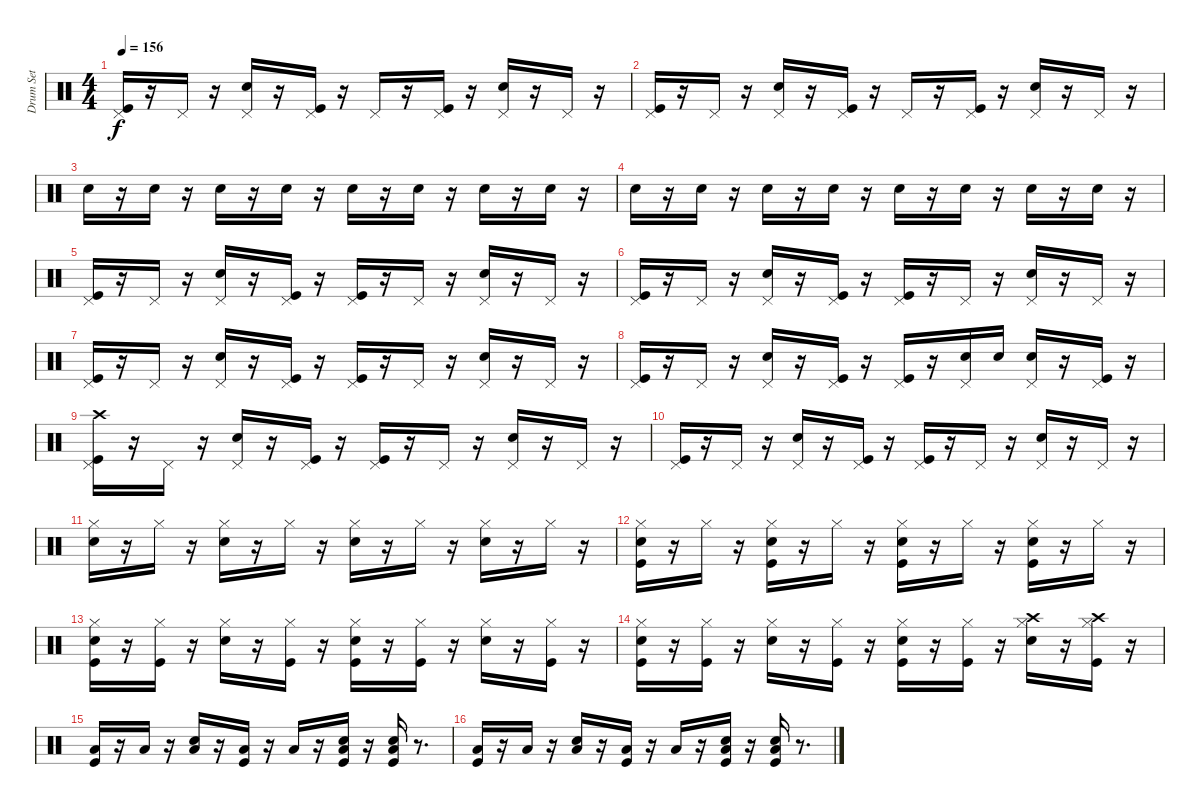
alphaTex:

\track ("Drum Set" "Drum Set") {instrument percussion}
\staff {score}
\articulation defaults
\ts (4 4)
\tempo 156
\clef neutral
\ks c
("Pedal Hi-Hat (hit)" "Kick (hit)").16{dy f} r.16 "Pedal Hi-Hat (hit)".16 r.16 ("Pedal Hi-Hat (hit)" "Snare (hit) 2").16 r.16 ("Pedal Hi-Hat (hit)" "Kick (hit)").16 r.16 "Pedal Hi-Hat (hit)".16 r.16 ("Pedal Hi-Hat (hit)" "Kick (hit)").16 r.16 ("Pedal Hi-Hat (hit)" "Snare (hit) 2").16 r.16 "Pedal Hi-Hat (hit)".16 r.16 |
("Pedal Hi-Hat (hit)" "Kick (hit)").16 r.16 "Pedal Hi-Hat (hit)".16 r.16 ("Pedal Hi-Hat (hit)" "Snare (hit) 2").16 r.16 ("Pedal Hi-Hat (hit)" "Kick (hit)").16 r.16 "Pedal Hi-Hat (hit)".16 r.16 ("Pedal Hi-Hat (hit)" "Kick (hit)").16 r.16 ("Pedal Hi-Hat (hit)" "Snare (hit) 2").16 r.16 "Pedal Hi-Hat (hit)".16 r.16 |
"Snare (hit) 2".16 r.16 "Snare (hit) 2".16 r.16 "Snare (hit) 2".16 r.16 "Snare (hit) 2".16 r.16 "Snare (hit) 2".16 r.16 "Snare (hit) 2".16 r.16 "Snare (hit) 2".16 r.16 "Snare (hit) 2".16 r.16 |
"Snare (hit) 2".16 r.16 "Snare (hit) 2".16 r.16 "Snare (hit) 2".16 r.16 "Snare (hit) 2".16 r.16 "Snare (hit) 2".16 r.16 "Snare (hit) 2".16 r.16 "Snare (hit) 2".16 r.16 "Snare (hit) 2".16 r.16 |
("Pedal Hi-Hat (hit)" "Kick (hit)").16 r.16 "Pedal Hi-Hat (hit)".16 r.16 ("Pedal Hi-Hat (hit)" "Snare (hit) 2").16 r.16 ("Pedal Hi-Hat (hit)" "Kick (hit)").16 r.16 ("Kick (hit)" "Pedal Hi-Hat (hit)").16 r.16 "Pedal Hi-Hat (hit)".16 r.16 ("Pedal Hi-Hat (hit)" "Snare (hit) 2").16 r.16 "Pedal Hi-Hat (hit)".16 r.16 |
("Pedal Hi-Hat (hit)" "Kick (hit)").16 r.16 "Pedal Hi-Hat (hit)".16 r.16 ("Pedal Hi-Hat (hit)" "Snare (hit) 2").16 r.16 ("Pedal Hi-Hat (hit)" "Kick (hit)").16 r.16 ("Kick (hit)" "Pedal Hi-Hat (hit)").16 r.16 "Pedal Hi-Hat (hit)".16 r.16 ("Pedal Hi-Hat (hit)" "Snare (hit) 2").16 r.16 "Pedal Hi-Hat (hit)".16 r.16 |
("Pedal Hi-Hat (hit)" "Kick (hit)").16 r.16 "Pedal Hi-Hat (hit)".16 r.16 ("Pedal Hi-Hat (hit)" "Snare (hit) 2").16 r.16 ("Pedal Hi-Hat (hit)" "Kick (hit)").16 r.16 ("Kick (hit)" "Pedal Hi-Hat (hit)").16 r.16 "Pedal Hi-Hat (hit)".16 r.16 ("Pedal Hi-Hat (hit)" "Snare (hit) 2").16 r.16 "Pedal Hi-Hat (hit)".16 r.16 |
("Pedal Hi-Hat (hit)" "Kick (hit)").16 r.16 "Pedal Hi-Hat (hit)".16 r.16 ("Pedal Hi-Hat (hit)" "Snare (hit) 2").16 r.16 ("Pedal Hi-Hat (hit)" "Kick (hit)").16 r.16 ("Kick (hit)" "Pedal Hi-Hat (hit)").16 r.16 ("Snare (hit) 2" "Pedal Hi-Hat (hit)").16 "Snare (hit) 2".16 ("Pedal Hi-Hat (hit)" "Snare (hit) 2").16 r.16 ("Kick (hit)" "Pedal Hi-Hat (hit)").16 r.16 |
("Crash high (hit)" "Pedal Hi-Hat (hit)" "Kick (hit)").16 r.16 "Pedal Hi-Hat (hit)".16 r.16 ("Pedal Hi-Hat (hit)" "Snare (hit) 2").16 r.16 ("Pedal Hi-Hat (hit)" "Kick (hit)").16 r.16 ("Kick (hit)" "Pedal Hi-Hat (hit)").16 r.16 "Pedal Hi-Hat (hit)".16 r.16 ("Pedal Hi-Hat (hit)" "Snare (hit) 2").16 r.16 "Pedal Hi-Hat (hit)".16 r.16 |
("Pedal Hi-Hat (hit)" "Kick (hit)").16 r.16 "Pedal Hi-Hat (hit)".16 r.16 ("Pedal Hi-Hat (hit)" "Snare (hit) 2").16 r.16 ("Pedal Hi-Hat (hit)" "Kick (hit)").16 r.16 ("Kick (hit)" "Pedal Hi-Hat (hit)").16 r.16 "Pedal Hi-Hat (hit)".16 r.16 ("Pedal Hi-Hat (hit)" "Snare (hit) 2").16 r.16 "Pedal Hi-Hat (hit)".16 r.16 |
("Electric Snare (hit)" "Hi-Hat (closed)").16 r.16 "Hi-Hat (closed)".16 r.16 ("Electric Snare (hit)" "Hi-Hat (closed)").16 r.16 "Hi-Hat (closed)".16 r.16 ("Hi-Hat (closed)" "Electric Snare (hit)").16 r.16 "Hi-Hat (closed)".16 r.16 ("Hi-Hat (closed)" "Electric Snare (hit)").16 r.16 "Hi-Hat (closed)".16 r.16 |
("Kick (hit)" "Electric Snare (hit)" "Hi-Hat (closed)").16 r.16 "Hi-Hat (closed)".16 r.16 ("Kick (hit)" "Electric Snare (hit)" "Hi-Hat (closed)").16 r.16 "Hi-Hat (closed)".16 r.16 ("Kick (hit)" "Hi-Hat (closed)" "Electric Snare (hit)").16 r.16 "Hi-Hat (closed)".16 r.16 ("Kick (hit)" "Hi-Hat (closed)" "Electric Snare (hit)").16 r.16 "Hi-Hat (closed)".16 r.16 |
("Kick (hit)" "Electric Snare (hit)" "Hi-Hat (closed)").16 r.16 ("Kick (hit)" "Hi-Hat (closed)").16 r.16 ("Electric Snare (hit)" "Hi-Hat (closed)").16 r.16 ("Kick (hit)" "Hi-Hat (closed)").16 r.16 ("Kick (hit)" "Hi-Hat (closed)" "Electric Snare (hit)").16 r.16 ("Kick (hit)" "Hi-Hat (closed)").16 r.16 ("Hi-Hat (closed)" "Electric Snare (hit)").16 r.16 ("Kick (hit)" "Hi-Hat (closed)").16 r.16 |
("Kick (hit)" "Electric Snare (hit)" "Hi-Hat (closed)").16 r.16 ("Kick (hit)" "Hi-Hat (closed)").16 r.16 ("Electric Snare (hit)" "Hi-Hat (closed)").16 r.16 ("Kick (hit)" "Hi-Hat (closed)").16 r.16 ("Kick (hit)" "Hi-Hat (closed)" "Electric Snare (hit)").16 r.16 ("Kick (hit)" "Hi-Hat (closed)").16 r.16 ("Crash high (hit)" "Hi-Hat (closed)" "Electric Snare (hit)").16 r.16 ("Crash high (hit)" "Kick (hit)" "Hi-Hat (closed)").16 r.16 |
("Low Floor Tom (hit)" "Kick (hit)").16 r.16 "Low Floor Tom (hit)".16 r.16 ("Low Floor Tom (hit)" "Snare (hit) 2").16 r.16 ("Low Floor Tom (hit)" "Kick (hit)").16 r.16 "Low Floor Tom (hit)".16 r.16 ("Low Floor Tom (hit)" "Kick (hit)" "Snare (hit) 2").16 r.16 ("Low Floor Tom (hit)" "Kick (hit)" "Snare (hit) 2").16 r.8{d} |
("Low Floor Tom (hit)" "Kick (hit)").16 r.16 "Low Floor Tom (hit)".16 r.16 ("Low Floor Tom (hit)" "Snare (hit) 2").16 r.16 ("Low Floor Tom (hit)" "Kick (hit)").16 r.16 "Low Floor Tom (hit)".16 r.16 ("Low Floor Tom (hit)" "Kick (hit)" "Snare (hit) 2").16 r.16 ("Low Floor Tom (hit)" "Kick (hit)" "Snare (hit) 2").16 r.8{d}
